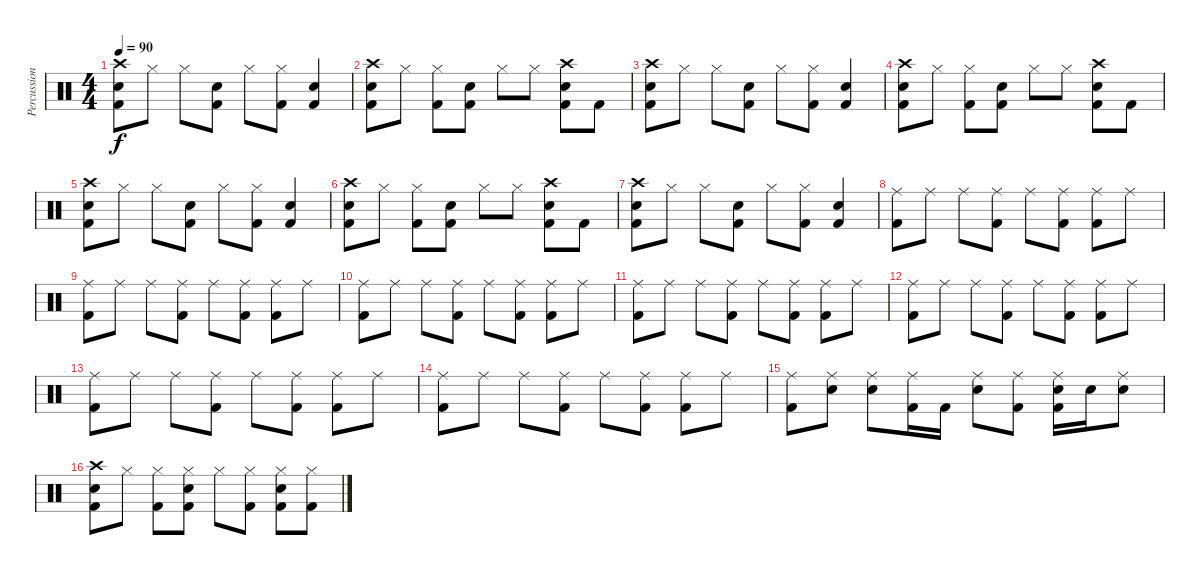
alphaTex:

\track ("Percussion" "Percussion") {instrument percussion}
\staff {score}
\articulation defaults
\ts (4 4)
\tempo 90
\clef neutral
\ks c
("Crash high (hit)" "Kick (hit) 2" "Snare (hit) 2").8{dy f} "Hi-Hat (closed)".8 "Hi-Hat (closed)".8 ("Kick (hit) 2" "Snare (hit) 2").8 "Hi-Hat (closed)".8 ("Kick (hit) 2" "Hi-Hat (closed)").8 ("Kick (hit) 2" "Snare (hit) 2").4 |
("Crash high (hit)" "Kick (hit) 2" "Snare (hit) 2").8 "Hi-Hat (closed)".8 ("Kick (hit) 2" "Hi-Hat (closed)").8 ("Kick (hit) 2" "Snare (hit) 2").8 "Hi-Hat (closed)".8 "Hi-Hat (closed)".8 ("Crash high (hit)" "Kick (hit) 2" "Snare (hit) 2").8 "Kick (hit) 2".8 |
("Crash high (hit)" "Kick (hit) 2" "Snare (hit) 2").8 "Hi-Hat (closed)".8 "Hi-Hat (closed)".8 ("Kick (hit) 2" "Snare (hit) 2").8 "Hi-Hat (closed)".8 ("Kick (hit) 2" "Hi-Hat (closed)").8 ("Kick (hit) 2" "Snare (hit) 2").4 |
("Crash high (hit)" "Kick (hit) 2" "Snare (hit) 2").8 "Hi-Hat (closed)".8 ("Kick (hit) 2" "Hi-Hat (closed)").8 ("Kick (hit) 2" "Snare (hit) 2").8 "Hi-Hat (closed)".8 "Hi-Hat (closed)".8 ("Crash high (hit)" "Kick (hit) 2" "Snare (hit) 2").8 "Kick (hit) 2".8 |
("Crash high (hit)" "Kick (hit) 2" "Snare (hit) 2").8 "Hi-Hat (closed)".8 "Hi-Hat (closed)".8 ("Kick (hit) 2" "Snare (hit) 2").8 "Hi-Hat (closed)".8 ("Kick (hit) 2" "Hi-Hat (closed)").8 ("Kick (hit) 2" "Snare (hit) 2").4 |
("Crash high (hit)" "Kick (hit) 2" "Snare (hit) 2").8 "Hi-Hat (closed)".8 ("Kick (hit) 2" "Hi-Hat (closed)").8 ("Kick (hit) 2" "Snare (hit) 2").8 "Hi-Hat (closed)".8 "Hi-Hat (closed)".8 ("Crash high (hit)" "Kick (hit) 2" "Snare (hit) 2").8 "Kick (hit) 2".8 |
("Crash high (hit)" "Kick (hit) 2" "Snare (hit) 2").8 "Hi-Hat (closed)".8 "Hi-Hat (closed)".8 ("Kick (hit) 2" "Snare (hit) 2").8 "Hi-Hat (closed)".8 ("Kick (hit) 2" "Hi-Hat (closed)").8 ("Kick (hit) 2" "Snare (hit) 2").4 |
("Ride (middle)" "Kick (hit) 2").8 "Ride (middle)".8 "Ride (middle)".8 ("Ride (middle)" "Kick (hit) 2").8 "Ride (middle)".8 ("Ride (middle)" "Kick (hit) 2").8 ("Ride (middle)" "Kick (hit) 2").8 "Ride (middle)".8 |
("Ride (middle)" "Kick (hit) 2").8 "Ride (middle)".8 "Ride (middle)".8 ("Ride (middle)" "Kick (hit) 2").8 "Ride (middle)".8 ("Ride (middle)" "Kick (hit) 2").8 ("Ride (middle)" "Kick (hit) 2").8 "Ride (middle)".8 |
("Ride (middle)" "Kick (hit) 2").8 "Ride (middle)".8 "Ride (middle)".8 ("Ride (middle)" "Kick (hit) 2").8 "Ride (middle)".8 ("Ride (middle)" "Kick (hit) 2").8 ("Ride (middle)" "Kick (hit) 2").8 "Ride (middle)".8 |
("Ride (middle)" "Kick (hit) 2").8 "Ride (middle)".8 "Ride (middle)".8 ("Ride (middle)" "Kick (hit) 2").8 "Ride (middle)".8 ("Ride (middle)" "Kick (hit) 2").8 ("Ride (middle)" "Kick (hit) 2").8 "Ride (middle)".8 |
("Ride (middle)" "Kick (hit) 2").8 "Ride (middle)".8 "Ride (middle)".8 ("Ride (middle)" "Kick (hit) 2").8 "Ride (middle)".8 ("Ride (middle)" "Kick (hit) 2").8 ("Ride (middle)" "Kick (hit) 2").8 "Ride (middle)".8 |
("Ride (middle)" "Kick (hit) 2").8 "Ride (middle)".8 "Ride (middle)".8 ("Ride (middle)" "Kick (hit) 2").8 "Ride (middle)".8 ("Ride (middle)" "Kick (hit) 2").8 ("Ride (middle)" "Kick (hit) 2").8 "Ride (middle)".8 |
("Ride (middle)" "Kick (hit) 2").8 "Ride (middle)".8 "Ride (middle)".8 ("Ride (middle)" "Kick (hit) 2").8 "Ride (middle)".8 ("Ride (middle)" "Kick (hit) 2").8 ("Ride (middle)" "Kick (hit) 2").8 "Ride (middle)".8 |
("Ride (middle)" "Kick (hit) 2").8 ("Ride (middle)" "Snare (hit) 2").8 ("Ride (middle)" "Snare (hit) 2").8 ("Ride (middle)" "Kick (hit) 2").16 "Kick (hit) 2".16 ("Ride (middle)" "Snare (hit) 2").8 ("Ride (middle)" "Kick (hit) 2").8 ("Ride (middle)" "Kick (hit) 2" "Snare (hit) 2").16 "Snare (hit) 2".16 ("Ride (middle)" "Snare (hit) 2").8 |
("Snare (hit) 2" "Crash high (hit)" "Kick (hit) 2").8 "Hi-Hat (closed)".8 ("Hi-Hat (closed)" "Kick (hit) 2").8 ("Hi-Hat (closed)" "Snare (hit) 2" "Kick (hit) 2").8 "Hi-Hat (closed)".8 ("Hi-Hat (closed)" "Kick (hit) 2").8 ("Hi-Hat (closed)" "Snare (hit) 2" "Kick (hit) 2").8 ("Hi-Hat (closed)" "Kick (hit) 2").8
